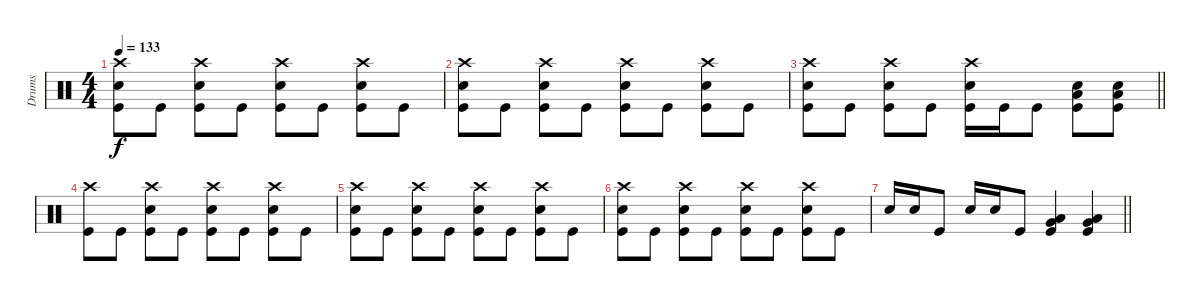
\track ("Drums" "Drums") {instrument percussion}
\staff
\articulation defaults
\ts (4 4)
\tempo 133
\clef neutral
\ks c
("Crash high (hit)" "Electric Snare (hit)" "Kick (hit)").8{dy f} "Kick (hit)".8 ("Crash high (hit)" "Electric Snare (hit)" "Kick (hit)").8 "Kick (hit)".8 ("Crash high (hit)" "Electric Snare (hit)" "Kick (hit)").8 "Kick (hit)".8 ("Crash high (hit)" "Electric Snare (hit)" "Kick (hit)").8 "Kick (hit)".8 |
("Crash high (hit)" "Electric Snare (hit)" "Kick (hit)").8 "Kick (hit)".8 ("Crash high (hit)" "Electric Snare (hit)" "Kick (hit)").8 "Kick (hit)".8 ("Crash high (hit)" "Electric Snare (hit)" "Kick (hit)").8 "Kick (hit)".8 ("Crash high (hit)" "Electric Snare (hit)" "Kick (hit)").8 "Kick (hit)".8 |
\barLineRight lightlight
("Crash high (hit)" "Electric Snare (hit)" "Kick (hit)").8 "Kick (hit)".8 ("Crash high (hit)" "Electric Snare (hit)" "Kick (hit)").8 "Kick (hit)".8 ("Crash high (hit)" "Electric Snare (hit)" "Kick (hit)").16 "Kick (hit)".16 "Kick (hit)".8 ("Low Floor Tom (hit)" "Electric Snare (hit)" "Kick (hit)").8 ("Low Floor Tom (hit)" "Electric Snare (hit)" "Kick (hit)").8 |
("Crash high (hit)" "Kick (hit)").8 "Kick (hit)".8 ("Crash high (hit)" "Electric Snare (hit)" "Kick (hit)").8 "Kick (hit)".8 ("Crash high (hit)" "Electric Snare (hit)" "Kick (hit)").8 "Kick (hit)".8 ("Crash high (hit)" "Electric Snare (hit)" "Kick (hit)").8 "Kick (hit)".8 |
("Crash high (hit)" "Electric Snare (hit)" "Kick (hit)").8 "Kick (hit)".8 ("Crash high (hit)" "Electric Snare (hit)" "Kick (hit)").8 "Kick (hit)".8 ("Crash high (hit)" "Electric Snare (hit)" "Kick (hit)").8 "Kick (hit)".8 ("Crash high (hit)" "Electric Snare (hit)" "Kick (hit)").8 "Kick (hit)".8 |
("Crash high (hit)" "Electric Snare (hit)" "Kick (hit)").8 "Kick (hit)".8 ("Crash high (hit)" "Electric Snare (hit)" "Kick (hit)").8 "Kick (hit)".8 ("Crash high (hit)" "Electric Snare (hit)" "Kick (hit)").8 "Kick (hit)".8 ("Crash high (hit)" "Electric Snare (hit)" "Kick (hit)").8 "Kick (hit)".8 |
\barLineRight lightlight "Electric Snare (hit)".16 "Electric Snare (hit)".16 "Kick (hit)".8 "Electric Snare (hit)".16 "Electric Snare (hit)".16 "Kick (hit)".8
("Very Low Tom (hit)" "Low Floor Tom (hit)" "Kick (hit)").4 ("Very Low Tom (hit)" "Low Floor Tom (hit)" "Kick (hit)").4
